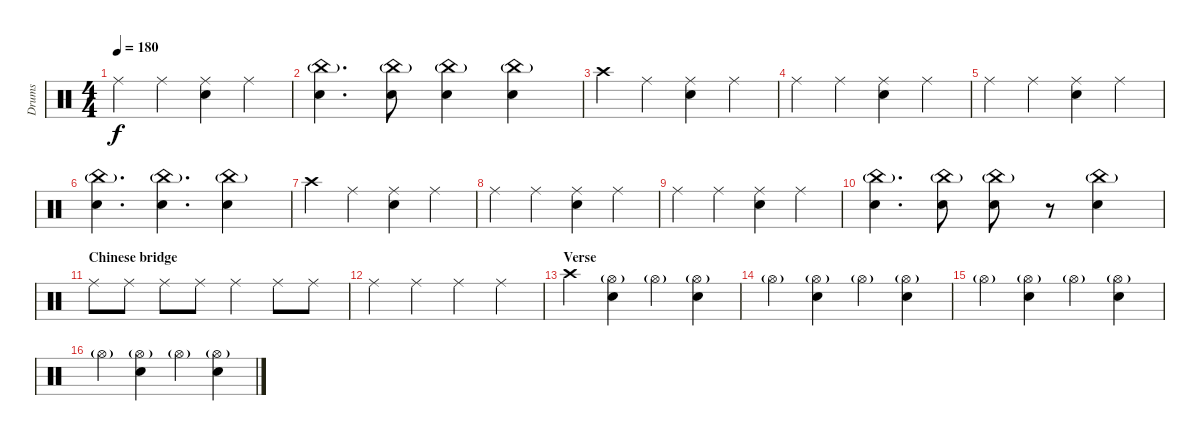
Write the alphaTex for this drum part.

\track ("Drums" "Drums") {instrument percussion}
\staff {score}
\articulation defaults
\ts (4 4)
\tempo 180
\clef neutral
\ks c "Ride (middle)".4{dy f} "Ride (middle)".4
("Ride (middle)" "Electric Snare (hit)").4 "Ride (middle)".4 |
("China (hit)"{g} "Electric Snare (hit)").4{d} ("China (hit)"{g} "Electric Snare (hit)").8 ("China (hit)"{g} "Electric Snare (hit)").4 ("China (hit)"{g} "Electric Snare (hit)").4 |
"Crash high (hit)".4 "Ride (middle)".4 ("Ride (middle)" "Electric Snare (hit)").4 "Ride (middle)".4 |
"Ride (middle)".4 "Ride (middle)".4 ("Ride (middle)" "Electric Snare (hit)").4 "Ride (middle)".4 |
"Ride (middle)".4 "Ride (middle)".4 ("Ride (middle)" "Electric Snare (hit)").4 "Ride (middle)".4 |
("China (hit)"{g} "Electric Snare (hit)").4{d} ("China (hit)"{g} "Electric Snare (hit)").4{d} ("China (hit)"{g} "Electric Snare (hit)").4 |
"Crash high (hit)".4 "Ride (middle)".4 ("Ride (middle)" "Electric Snare (hit)").4 "Ride (middle)".4 |
"Ride (middle)".4 "Ride (middle)".4 ("Ride (middle)" "Electric Snare (hit)").4 "Ride (middle)".4 |
"Ride (middle)".4 "Ride (middle)".4 ("Ride (middle)" "Electric Snare (hit)").4 "Ride (middle)".4 |
("China (hit)"{g} "Electric Snare (hit)").4{d} ("China (hit)"{g} "Electric Snare (hit)").8 ("China (hit)"{g} "Electric Snare (hit)").8 r.8 ("China (hit)"{g} "Electric Snare (hit)").4 |
\section ("" "Chinese bridge")
"Ride (middle)".8 "Ride (middle)".8 "Ride (middle)".8 "Ride (middle)".8 "Ride (middle)".4 "Ride (middle)".8 "Ride (middle)".8 |
"Ride (middle)".4 "Ride (middle)".4 "Ride (middle)".4 "Ride (middle)".4 |
\section ("" "Verse")
"Crash high (hit)".4 ("Hi-Hat (open)"{g} "Electric Snare (hit)").4 "Hi-Hat (open)"{g}.4 ("Hi-Hat (open)"{g} "Electric Snare (hit)").4 |
"Hi-Hat (open)"{g}.4 ("Hi-Hat (open)"{g} "Electric Snare (hit)").4 "Hi-Hat (open)"{g}.4 ("Hi-Hat (open)"{g} "Electric Snare (hit)").4 |
"Hi-Hat (open)"{g}.4 ("Hi-Hat (open)"{g} "Electric Snare (hit)").4 "Hi-Hat (open)"{g}.4 ("Hi-Hat (open)"{g} "Electric Snare (hit)").4 |
"Hi-Hat (open)"{g}.4 ("Hi-Hat (open)"{g} "Electric Snare (hit)").4 "Hi-Hat (open)"{g}.4 ("Hi-Hat (open)"{g} "Electric Snare (hit)").4
